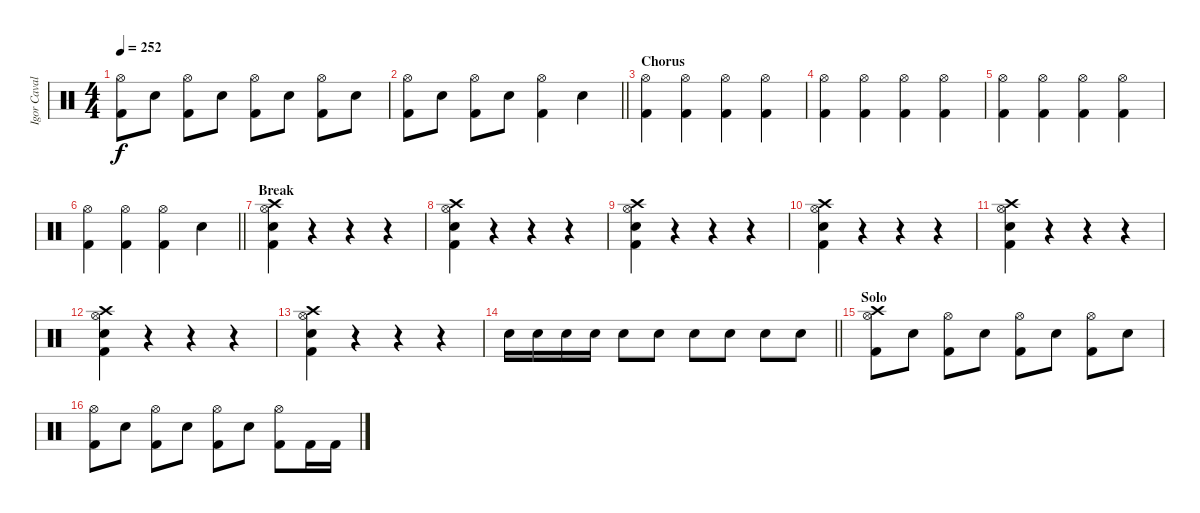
\track ("Igor Cavalera" "Igor Caval") {instrument percussion}
\staff {score}
\articulation defaults
\ts (4 4)
\tempo 252
\clef neutral
\ks c
("Hi-Hat (open)" "Kick (hit) 2").8{dy f} "Electric Snare (hit)".8 ("Hi-Hat (open)" "Kick (hit) 2").8 "Electric Snare (hit)".8 ("Hi-Hat (open)" "Kick (hit) 2").8 "Electric Snare (hit)".8 ("Hi-Hat (open)" "Kick (hit) 2").8 "Electric Snare (hit)".8 |
\barLineRight lightlight
("Hi-Hat (open)" "Kick (hit) 2").8 "Electric Snare (hit)".8 ("Hi-Hat (open)" "Kick (hit) 2").8 "Electric Snare (hit)".8 ("Hi-Hat (open)" "Kick (hit) 2").4 "Electric Snare (hit)".4 |
\section ("" "Chorus")
("Hi-Hat (open)" "Kick (hit) 2").4 ("Hi-Hat (open)" "Kick (hit) 2").4 ("Hi-Hat (open)" "Kick (hit) 2").4 ("Hi-Hat (open)" "Kick (hit) 2").4 |
("Hi-Hat (open)" "Kick (hit) 2").4 ("Hi-Hat (open)" "Kick (hit) 2").4 ("Hi-Hat (open)" "Kick (hit) 2").4 ("Hi-Hat (open)" "Kick (hit) 2").4 |
("Hi-Hat (open)" "Kick (hit) 2").4 ("Hi-Hat (open)" "Kick (hit) 2").4 ("Hi-Hat (open)" "Kick (hit) 2").4 ("Hi-Hat (open)" "Kick (hit) 2").4 |
\barLineRight lightlight
("Hi-Hat (open)" "Kick (hit) 2").4 ("Hi-Hat (open)" "Kick (hit) 2").4 ("Hi-Hat (open)" "Kick (hit) 2").4 "Electric Snare (hit)".4 |
\section ("" "Break")
("Crash high (hit)" "Hi-Hat (open)" "Electric Snare (hit)" "Kick (hit) 2").4 r.4 r.4 r.4 |
("Crash high (hit)" "Hi-Hat (open)" "Electric Snare (hit)" "Kick (hit) 2").4 r.4 r.4 r.4 |
("Crash high (hit)" "Hi-Hat (open)" "Electric Snare (hit)" "Kick (hit) 2").4 r.4 r.4 r.4 |
("Crash high (hit)" "Hi-Hat (open)" "Electric Snare (hit)" "Kick (hit) 2").4 r.4 r.4 r.4 |
("Crash high (hit)" "Hi-Hat (open)" "Electric Snare (hit)" "Kick (hit) 2").4 r.4 r.4 r.4 |
("Crash high (hit)" "Hi-Hat (open)" "Electric Snare (hit)" "Kick (hit) 2").4 r.4 r.4 r.4 |
("Crash high (hit)" "Hi-Hat (open)" "Electric Snare (hit)" "Kick (hit) 2").4 r.4 r.4 r.4 |
\barLineRight lightlight "Electric Snare (hit)".16 "Electric Snare (hit)".16 "Electric Snare (hit)".16 "Electric Snare (hit)".16 "Electric Snare (hit)".8 "Electric Snare (hit)".8 "Electric Snare (hit)".8 "Electric Snare (hit)".8 "Electric Snare (hit)".8 "Electric Snare (hit)".8
|
\section ("" "Solo")
("Crash high (hit)" "Hi-Hat (open)" "Kick (hit) 2").8 "Electric Snare (hit)".8 ("Hi-Hat (open)" "Kick (hit) 2").8 "Electric Snare (hit)".8 ("Hi-Hat (open)" "Kick (hit) 2").8 "Electric Snare (hit)".8 ("Hi-Hat (open)" "Kick (hit) 2").8 "Electric Snare (hit)".8 |
("Hi-Hat (open)" "Kick (hit) 2").8 "Electric Snare (hit)".8 ("Hi-Hat (open)" "Kick (hit) 2").8 "Electric Snare (hit)".8 ("Hi-Hat (open)" "Kick (hit) 2").8 "Electric Snare (hit)".8 ("Hi-Hat (open)" "Kick (hit) 2").8 "Kick (hit) 2".16 "Kick (hit) 2".16
